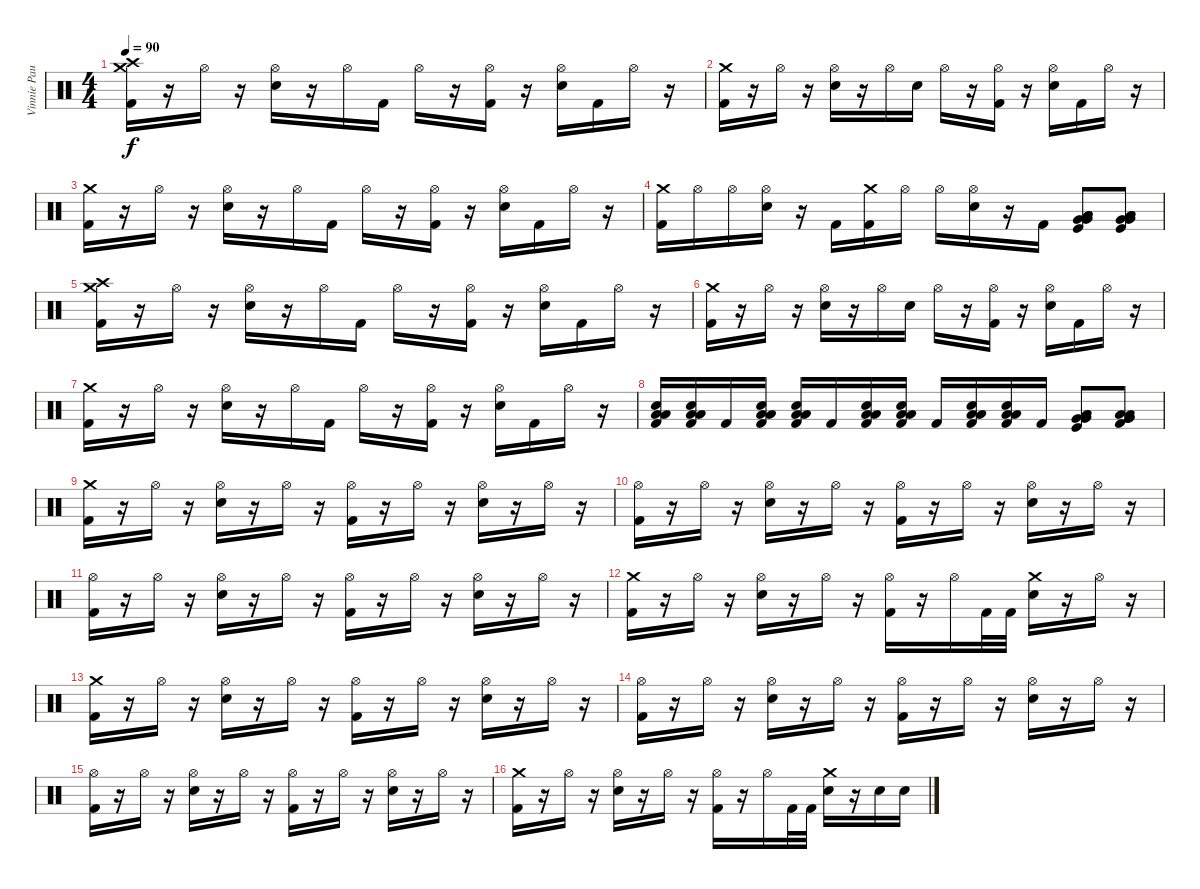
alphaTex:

\track ("Vinnie Paul" "Vinnie Pau") {instrument percussion}
\staff {score}
\articulation defaults
\ts (4 4)
\tempo 90
\clef neutral
\ks c
("Crash high (hit)" "Crash medium (hit)" "Kick (hit) 2").16{dy f} r.16 "Hi-Hat (open)".16 r.16 ("Hi-Hat (open)" "Snare (hit) 2").16 r.16 "Hi-Hat (open)".16 "Kick (hit) 2".16 "Hi-Hat (open)".16 r.16 ("Hi-Hat (open)" "Kick (hit) 2").16 r.16 ("Hi-Hat (open)" "Snare (hit) 2").16 "Kick (hit) 2".16 "Hi-Hat (open)".16 r.16 |
("Crash medium (hit)" "Kick (hit) 2").16 r.16 "Hi-Hat (open)".16 r.16 ("Hi-Hat (open)" "Snare (hit) 2").16 r.16 "Hi-Hat (open)".16 "Snare (hit) 2".16 "Hi-Hat (open)".16 r.16 ("Hi-Hat (open)" "Kick (hit) 2").16 r.16 ("Hi-Hat (open)" "Snare (hit) 2").16 "Kick (hit) 2".16 "Hi-Hat (open)".16 r.16 |
("Crash medium (hit)" "Kick (hit) 2").16 r.16 "Hi-Hat (open)".16 r.16 ("Hi-Hat (open)" "Snare (hit) 2").16 r.16 "Hi-Hat (open)".16 "Kick (hit) 2".16 "Hi-Hat (open)".16 r.16 ("Hi-Hat (open)" "Kick (hit) 2").16 r.16 ("Hi-Hat (open)" "Snare (hit) 2").16 "Kick (hit) 2".16 "Hi-Hat (open)".16 r.16 |
("Crash medium (hit)" "Kick (hit) 2").16 "Hi-Hat (open)".16 "Hi-Hat (open)".16 ("Hi-Hat (open)" "Snare (hit) 2").16 r.16 "Kick (hit) 2".16 ("Crash medium (hit)" "Kick (hit) 2").16 "Hi-Hat (open)".16 "Hi-Hat (open)".16 ("Hi-Hat (open)" "Snare (hit) 2").16 r.16 "Kick (hit) 2".16 ("Very Low Tom (hit)" "Very Low Tom (hit)" "Low Floor Tom (hit)" "Low Floor Tom (hit)" "Kick (hit)").8 ("Very Low Tom (hit)" "Very Low Tom (hit)" "Low Floor Tom (hit)" "Low Floor Tom (hit)" "Kick (hit)").8 |
("Crash high (hit)" "Crash medium (hit)" "Kick (hit) 2").16 r.16 "Hi-Hat (open)".16 r.16 ("Hi-Hat (open)" "Snare (hit) 2").16 r.16 "Hi-Hat (open)".16 "Kick (hit) 2".16 "Hi-Hat (open)".16 r.16 ("Hi-Hat (open)" "Kick (hit) 2").16 r.16 ("Hi-Hat (open)" "Snare (hit) 2").16 "Kick (hit) 2".16 "Hi-Hat (open)".16 r.16 |
("Crash medium (hit)" "Kick (hit) 2").16 r.16 "Hi-Hat (open)".16 r.16 ("Hi-Hat (open)" "Snare (hit) 2").16 r.16 "Hi-Hat (open)".16 "Snare (hit) 2".16 "Hi-Hat (open)".16 r.16 ("Hi-Hat (open)" "Kick (hit) 2").16 r.16 ("Hi-Hat (open)" "Snare (hit) 2").16 "Kick (hit) 2".16 "Hi-Hat (open)".16 r.16 |
("Crash medium (hit)" "Kick (hit) 2").16 r.16 "Hi-Hat (open)".16 r.16 ("Hi-Hat (open)" "Snare (hit) 2").16 r.16 "Hi-Hat (open)".16 "Kick (hit) 2".16 "Hi-Hat (open)".16 r.16 ("Hi-Hat (open)" "Kick (hit) 2").16 r.16 ("Hi-Hat (open)" "Snare (hit) 2").16 "Kick (hit) 2".16 "Hi-Hat (open)".16 r.16 |
("Low Floor Tom (hit)" "Low Floor Tom (hit)" "Snare (hit) 2" "Kick (hit) 2").16 ("Low Floor Tom (hit)" "Low Floor Tom (hit)" "Snare (hit) 2" "Kick (hit) 2").16 "Kick (hit) 2".16 ("Low Floor Tom (hit)" "Low Floor Tom (hit)" "Snare (hit) 2" "Kick (hit) 2").16 ("Low Floor Tom (hit)" "Low Floor Tom (hit)" "Snare (hit) 2" "Kick (hit) 2").16 "Kick (hit) 2".16 ("Low Floor Tom (hit)" "Low Floor Tom (hit)" "Snare (hit) 2" "Kick (hit) 2").16 ("Low Floor Tom (hit)" "Low Floor Tom (hit)" "Snare (hit) 2" "Kick (hit) 2").16 "Kick (hit) 2".16 ("Low Floor Tom (hit)" "Low Floor Tom (hit)" "Snare (hit) 2" "Kick (hit) 2").16 ("Low Floor Tom (hit)" "Low Floor Tom (hit)" "Snare (hit) 2" "Kick (hit) 2").16 "Kick (hit) 2".16 ("Very Low Tom (hit)" "Very Low Tom (hit)" "Low Floor Tom (hit)" "Low Floor Tom (hit)" "Kick (hit)").8 ("Very Low Tom (hit)" "Very Low Tom (hit)" "Low Floor Tom (hit)" "Low Floor Tom (hit)" "Kick (hit) 2").8 |
("Crash medium (hit)" "Kick (hit) 2").16 r.16 "Hi-Hat (open)".16 r.16 ("Hi-Hat (open)" "Snare (hit) 2").16 r.16 "Hi-Hat (open)".16 r.16 ("Hi-Hat (open)" "Kick (hit) 2").16 r.16 "Hi-Hat (open)".16 r.16 ("Hi-Hat (open)" "Snare (hit) 2").16 r.16 "Hi-Hat (open)".16 r.16 |
("Hi-Hat (open)" "Kick (hit) 2").16 r.16 "Hi-Hat (open)".16 r.16 ("Hi-Hat (open)" "Snare (hit) 2").16 r.16 "Hi-Hat (open)".16 r.16 ("Hi-Hat (open)" "Kick (hit) 2").16 r.16 "Hi-Hat (open)".16 r.16 ("Hi-Hat (open)" "Snare (hit) 2").16 r.16 "Hi-Hat (open)".16 r.16 |
("Hi-Hat (open)" "Kick (hit) 2").16 r.16 "Hi-Hat (open)".16 r.16 ("Hi-Hat (open)" "Snare (hit) 2").16 r.16 "Hi-Hat (open)".16 r.16 ("Hi-Hat (open)" "Kick (hit) 2").16 r.16 "Hi-Hat (open)".16 r.16 ("Hi-Hat (open)" "Snare (hit) 2").16 r.16 "Hi-Hat (open)".16 r.16 |
("Crash medium (hit)" "Kick (hit) 2").16 r.16 "Hi-Hat (open)".16 r.16 ("Hi-Hat (open)" "Snare (hit) 2").16 r.16 "Hi-Hat (open)".16 r.16 ("Hi-Hat (open)" "Kick (hit) 2").16 r.16 "Hi-Hat (open)".16 "Kick (hit) 2".32 "Kick (hit) 2".32 ("Crash medium (hit)" "Snare (hit) 2").16 r.16 "Hi-Hat (open)".16 r.16 |
("Crash medium (hit)" "Kick (hit) 2").16 r.16 "Hi-Hat (open)".16 r.16 ("Hi-Hat (open)" "Snare (hit) 2").16 r.16 "Hi-Hat (open)".16 r.16 ("Hi-Hat (open)" "Kick (hit) 2").16 r.16 "Hi-Hat (open)".16 r.16 ("Hi-Hat (open)" "Snare (hit) 2").16 r.16 "Hi-Hat (open)".16 r.16 |
("Hi-Hat (open)" "Kick (hit) 2").16 r.16 "Hi-Hat (open)".16 r.16 ("Hi-Hat (open)" "Snare (hit) 2").16 r.16 "Hi-Hat (open)".16 r.16 ("Hi-Hat (open)" "Kick (hit) 2").16 r.16 "Hi-Hat (open)".16 r.16 ("Hi-Hat (open)" "Snare (hit) 2").16 r.16 "Hi-Hat (open)".16 r.16 |
("Hi-Hat (open)" "Kick (hit) 2").16 r.16 "Hi-Hat (open)".16 r.16 ("Hi-Hat (open)" "Snare (hit) 2").16 r.16 "Hi-Hat (open)".16 r.16 ("Hi-Hat (open)" "Kick (hit) 2").16 r.16 "Hi-Hat (open)".16 r.16 ("Hi-Hat (open)" "Snare (hit) 2").16 r.16 "Hi-Hat (open)".16 r.16 |
("Crash medium (hit)" "Kick (hit) 2").16 r.16 "Hi-Hat (open)".16 r.16 ("Hi-Hat (open)" "Snare (hit) 2").16 r.16 "Hi-Hat (open)".16 r.16 ("Hi-Hat (open)" "Kick (hit) 2").16 r.16 "Hi-Hat (open)".16 "Kick (hit) 2".32 "Kick (hit) 2".32 ("Crash medium (hit)" "Snare (hit) 2").16 r.16 "Snare (hit) 2".16 "Snare (hit) 2".16
